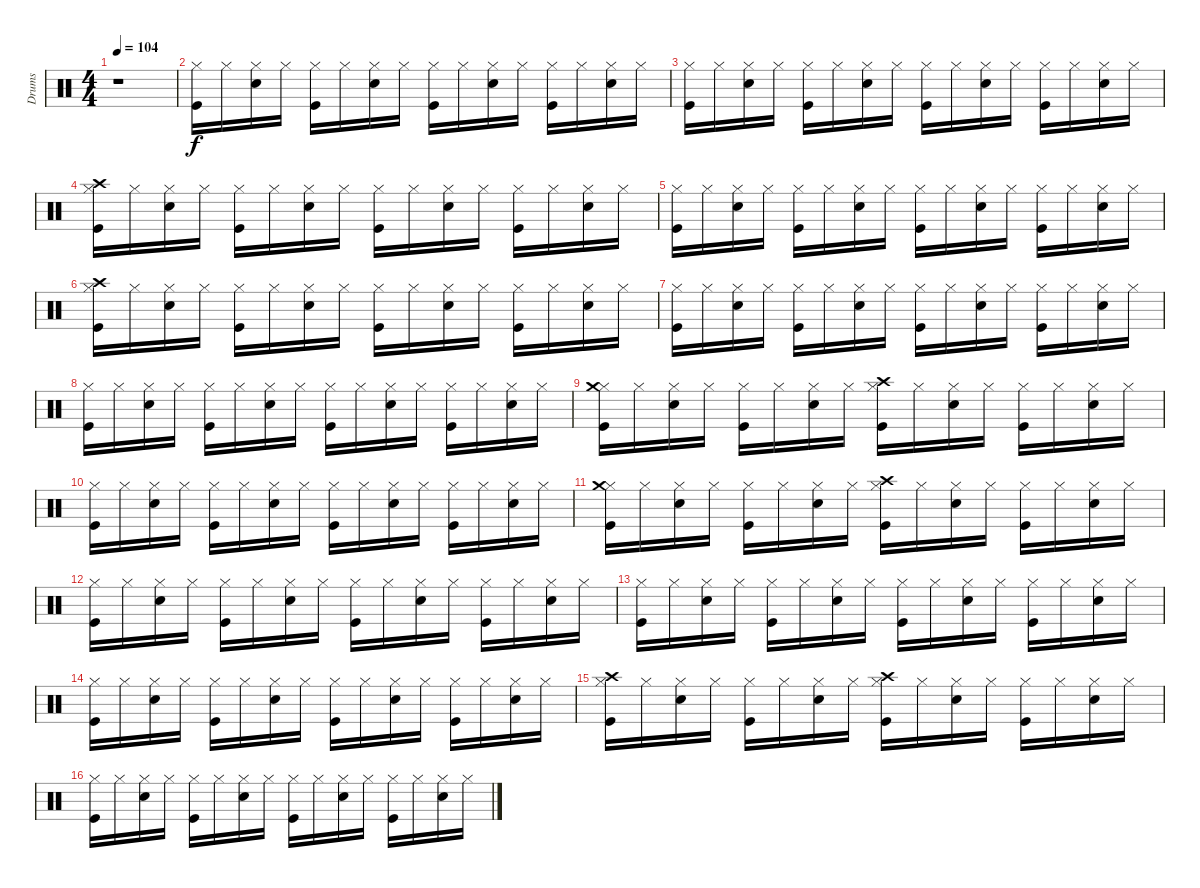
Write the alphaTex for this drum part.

\track ("Drums" "Drums") {instrument percussion}
\staff {score}
\articulation defaults
\ts (4 4)
\tempo 104
\clef neutral
\ks c
r.1{dy f} |
("Kick (hit)" "Hi-Hat (closed)").16 "Hi-Hat (closed)".16 ("Snare (hit) 2" "Hi-Hat (closed)").16 "Hi-Hat (closed)".16 ("Kick (hit)" "Hi-Hat (closed)").16 "Hi-Hat (closed)".16 ("Snare (hit) 2" "Hi-Hat (closed)").16 "Hi-Hat (closed)".16 ("Kick (hit)" "Hi-Hat (closed)").16 "Hi-Hat (closed)".16 ("Snare (hit) 2" "Hi-Hat (closed)").16 "Hi-Hat (closed)".16 ("Kick (hit)" "Hi-Hat (closed)").16 "Hi-Hat (closed)".16 ("Snare (hit) 2" "Hi-Hat (closed)").16 "Hi-Hat (closed)".16 |
("Kick (hit)" "Hi-Hat (closed)").16 "Hi-Hat (closed)".16 ("Snare (hit) 2" "Hi-Hat (closed)").16 "Hi-Hat (closed)".16 ("Kick (hit)" "Hi-Hat (closed)").16 "Hi-Hat (closed)".16 ("Snare (hit) 2" "Hi-Hat (closed)").16 "Hi-Hat (closed)".16 ("Kick (hit)" "Hi-Hat (closed)").16 "Hi-Hat (closed)".16 ("Snare (hit) 2" "Hi-Hat (closed)").16 "Hi-Hat (closed)".16 ("Kick (hit)" "Hi-Hat (closed)").16 "Hi-Hat (closed)".16 ("Snare (hit) 2" "Hi-Hat (closed)").16 "Hi-Hat (closed)".16 |
("Kick (hit)" "Hi-Hat (closed)" "Crash high (hit)").16 "Hi-Hat (closed)".16 ("Snare (hit) 2" "Hi-Hat (closed)").16 "Hi-Hat (closed)".16 ("Kick (hit)" "Hi-Hat (closed)").16 "Hi-Hat (closed)".16 ("Snare (hit) 2" "Hi-Hat (closed)").16 "Hi-Hat (closed)".16 ("Kick (hit)" "Hi-Hat (closed)").16 "Hi-Hat (closed)".16 ("Snare (hit) 2" "Hi-Hat (closed)").16 "Hi-Hat (closed)".16 ("Kick (hit)" "Hi-Hat (closed)").16 "Hi-Hat (closed)".16 ("Snare (hit) 2" "Hi-Hat (closed)").16 "Hi-Hat (closed)".16 |
("Kick (hit)" "Hi-Hat (closed)").16 "Hi-Hat (closed)".16 ("Snare (hit) 2" "Hi-Hat (closed)").16 "Hi-Hat (closed)".16 ("Kick (hit)" "Hi-Hat (closed)").16 "Hi-Hat (closed)".16 ("Snare (hit) 2" "Hi-Hat (closed)").16 "Hi-Hat (closed)".16 ("Kick (hit)" "Hi-Hat (closed)").16 "Hi-Hat (closed)".16 ("Snare (hit) 2" "Hi-Hat (closed)").16 "Hi-Hat (closed)".16 ("Kick (hit)" "Hi-Hat (closed)").16 "Hi-Hat (closed)".16 ("Snare (hit) 2" "Hi-Hat (closed)").16 "Hi-Hat (closed)".16 |
("Kick (hit)" "Hi-Hat (closed)" "Crash high (hit)").16 "Hi-Hat (closed)".16 ("Snare (hit) 2" "Hi-Hat (closed)").16 "Hi-Hat (closed)".16 ("Kick (hit)" "Hi-Hat (closed)").16 "Hi-Hat (closed)".16 ("Snare (hit) 2" "Hi-Hat (closed)").16 "Hi-Hat (closed)".16 ("Kick (hit)" "Hi-Hat (closed)").16 "Hi-Hat (closed)".16 ("Snare (hit) 2" "Hi-Hat (closed)").16 "Hi-Hat (closed)".16 ("Kick (hit)" "Hi-Hat (closed)").16 "Hi-Hat (closed)".16 ("Snare (hit) 2" "Hi-Hat (closed)").16 "Hi-Hat (closed)".16 |
("Kick (hit)" "Hi-Hat (closed)").16 "Hi-Hat (closed)".16 ("Snare (hit) 2" "Hi-Hat (closed)").16 "Hi-Hat (closed)".16 ("Kick (hit)" "Hi-Hat (closed)").16 "Hi-Hat (closed)".16 ("Snare (hit) 2" "Hi-Hat (closed)").16 "Hi-Hat (closed)".16 ("Kick (hit)" "Hi-Hat (closed)").16 "Hi-Hat (closed)".16 ("Snare (hit) 2" "Hi-Hat (closed)").16 "Hi-Hat (closed)".16 ("Kick (hit)" "Hi-Hat (closed)").16 "Hi-Hat (closed)".16 ("Snare (hit) 2" "Hi-Hat (closed)").16 "Hi-Hat (closed)".16 |
("Kick (hit)" "Hi-Hat (closed)").16 "Hi-Hat (closed)".16 ("Snare (hit) 2" "Hi-Hat (closed)").16 "Hi-Hat (closed)".16 ("Kick (hit)" "Hi-Hat (closed)").16 "Hi-Hat (closed)".16 ("Snare (hit) 2" "Hi-Hat (closed)").16 "Hi-Hat (closed)".16 ("Kick (hit)" "Hi-Hat (closed)").16 "Hi-Hat (closed)".16 ("Snare (hit) 2" "Hi-Hat (closed)").16 "Hi-Hat (closed)".16 ("Kick (hit)" "Hi-Hat (closed)").16 "Hi-Hat (closed)".16 ("Snare (hit) 2" "Hi-Hat (closed)").16 "Hi-Hat (closed)".16 |
("Kick (hit)" "Hi-Hat (closed)" "Crash medium (hit)").16 "Hi-Hat (closed)".16 ("Snare (hit) 2" "Hi-Hat (closed)").16 "Hi-Hat (closed)".16 ("Kick (hit)" "Hi-Hat (closed)").16 "Hi-Hat (closed)".16 ("Snare (hit) 2" "Hi-Hat (closed)").16 "Hi-Hat (closed)".16 ("Kick (hit)" "Hi-Hat (closed)" "Crash high (hit)").16 "Hi-Hat (closed)".16 ("Snare (hit) 2" "Hi-Hat (closed)").16 "Hi-Hat (closed)".16 ("Kick (hit)" "Hi-Hat (closed)").16 "Hi-Hat (closed)".16 ("Snare (hit) 2" "Hi-Hat (closed)").16 "Hi-Hat (closed)".16 |
("Kick (hit)" "Hi-Hat (closed)").16 "Hi-Hat (closed)".16 ("Snare (hit) 2" "Hi-Hat (closed)").16 "Hi-Hat (closed)".16 ("Kick (hit)" "Hi-Hat (closed)").16 "Hi-Hat (closed)".16 ("Snare (hit) 2" "Hi-Hat (closed)").16 "Hi-Hat (closed)".16 ("Kick (hit)" "Hi-Hat (closed)").16 "Hi-Hat (closed)".16 ("Snare (hit) 2" "Hi-Hat (closed)").16 "Hi-Hat (closed)".16 ("Kick (hit)" "Hi-Hat (closed)").16 "Hi-Hat (closed)".16 ("Snare (hit) 2" "Hi-Hat (closed)").16 "Hi-Hat (closed)".16 |
("Kick (hit)" "Hi-Hat (closed)" "Crash medium (hit)").16 "Hi-Hat (closed)".16 ("Snare (hit) 2" "Hi-Hat (closed)").16 "Hi-Hat (closed)".16 ("Kick (hit)" "Hi-Hat (closed)").16 "Hi-Hat (closed)".16 ("Snare (hit) 2" "Hi-Hat (closed)").16 "Hi-Hat (closed)".16 ("Kick (hit)" "Hi-Hat (closed)" "Crash high (hit)").16 "Hi-Hat (closed)".16 ("Snare (hit) 2" "Hi-Hat (closed)").16 "Hi-Hat (closed)".16 ("Kick (hit)" "Hi-Hat (closed)").16 "Hi-Hat (closed)".16 ("Snare (hit) 2" "Hi-Hat (closed)").16 "Hi-Hat (closed)".16 |
("Kick (hit)" "Hi-Hat (closed)").16 "Hi-Hat (closed)".16 ("Snare (hit) 2" "Hi-Hat (closed)").16 "Hi-Hat (closed)".16 ("Kick (hit)" "Hi-Hat (closed)").16 "Hi-Hat (closed)".16 ("Snare (hit) 2" "Hi-Hat (closed)").16 "Hi-Hat (closed)".16 ("Kick (hit)" "Hi-Hat (closed)").16 "Hi-Hat (closed)".16 ("Snare (hit) 2" "Hi-Hat (closed)").16 "Hi-Hat (closed)".16 ("Kick (hit)" "Hi-Hat (closed)").16 "Hi-Hat (closed)".16 ("Snare (hit) 2" "Hi-Hat (closed)").16 "Hi-Hat (closed)".16 |
("Kick (hit)" "Hi-Hat (closed)").16 "Hi-Hat (closed)".16 ("Snare (hit) 2" "Hi-Hat (closed)").16 "Hi-Hat (closed)".16 ("Kick (hit)" "Hi-Hat (closed)").16 "Hi-Hat (closed)".16 ("Snare (hit) 2" "Hi-Hat (closed)").16 "Hi-Hat (closed)".16 ("Kick (hit)" "Hi-Hat (closed)").16 "Hi-Hat (closed)".16 ("Snare (hit) 2" "Hi-Hat (closed)").16 "Hi-Hat (closed)".16 ("Kick (hit)" "Hi-Hat (closed)").16 "Hi-Hat (closed)".16 ("Snare (hit) 2" "Hi-Hat (closed)").16 "Hi-Hat (closed)".16 |
("Kick (hit)" "Hi-Hat (closed)").16 "Hi-Hat (closed)".16 ("Snare (hit) 2" "Hi-Hat (closed)").16 "Hi-Hat (closed)".16 ("Kick (hit)" "Hi-Hat (closed)").16 "Hi-Hat (closed)".16 ("Snare (hit) 2" "Hi-Hat (closed)").16 "Hi-Hat (closed)".16 ("Kick (hit)" "Hi-Hat (closed)").16 "Hi-Hat (closed)".16 ("Snare (hit) 2" "Hi-Hat (closed)").16 "Hi-Hat (closed)".16 ("Kick (hit)" "Hi-Hat (closed)").16 "Hi-Hat (closed)".16 ("Snare (hit) 2" "Hi-Hat (closed)").16 "Hi-Hat (closed)".16 |
("Kick (hit)" "Hi-Hat (closed)" "Crash high (hit)").16 "Hi-Hat (closed)".16 ("Snare (hit) 2" "Hi-Hat (closed)").16 "Hi-Hat (closed)".16 ("Kick (hit)" "Hi-Hat (closed)").16 "Hi-Hat (closed)".16 ("Snare (hit) 2" "Hi-Hat (closed)").16 "Hi-Hat (closed)".16 ("Kick (hit)" "Hi-Hat (closed)" "Crash high (hit)").16 "Hi-Hat (closed)".16 ("Snare (hit) 2" "Hi-Hat (closed)").16 "Hi-Hat (closed)".16 ("Kick (hit)" "Hi-Hat (closed)").16 "Hi-Hat (closed)".16 ("Snare (hit) 2" "Hi-Hat (closed)").16 "Hi-Hat (closed)".16 |
("Kick (hit)" "Hi-Hat (closed)").16 "Hi-Hat (closed)".16 ("Snare (hit) 2" "Hi-Hat (closed)").16 "Hi-Hat (closed)".16 ("Kick (hit)" "Hi-Hat (closed)").16 "Hi-Hat (closed)".16 ("Snare (hit) 2" "Hi-Hat (closed)").16 "Hi-Hat (closed)".16 ("Kick (hit)" "Hi-Hat (closed)").16 "Hi-Hat (closed)".16 ("Snare (hit) 2" "Hi-Hat (closed)").16 "Hi-Hat (closed)".16 ("Kick (hit)" "Hi-Hat (closed)").16 "Hi-Hat (closed)".16 ("Snare (hit) 2" "Hi-Hat (closed)").16 "Hi-Hat (closed)".16
